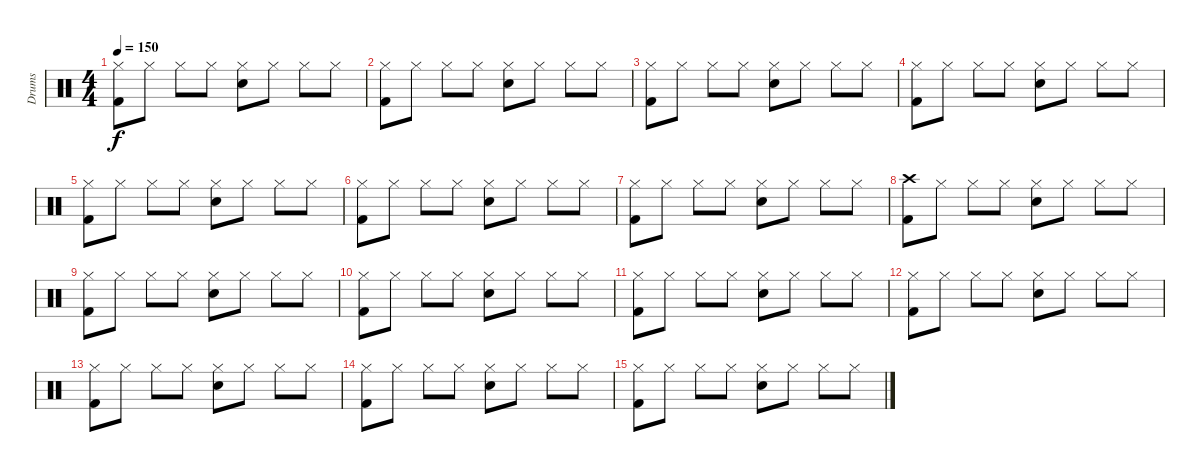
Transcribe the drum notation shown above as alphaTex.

\track ("Drums" "Drums") {instrument percussion}
\staff {score}
\articulation defaults
\ts (4 4)
\tempo 150
\clef neutral
\ks c
("Hi-Hat (closed)" "Kick (hit) 2").8{dy f} "Hi-Hat (closed)".8 "Hi-Hat (closed)".8 "Hi-Hat (closed)".8 ("Hi-Hat (closed)" "Electric Snare (hit)").8 "Hi-Hat (closed)".8 "Hi-Hat (closed)".8 "Hi-Hat (closed)".8 |
("Hi-Hat (closed)" "Kick (hit) 2").8 "Hi-Hat (closed)".8 "Hi-Hat (closed)".8 "Hi-Hat (closed)".8 ("Hi-Hat (closed)" "Electric Snare (hit)").8 "Hi-Hat (closed)".8 "Hi-Hat (closed)".8 "Hi-Hat (closed)".8 |
("Hi-Hat (closed)" "Kick (hit) 2").8 "Hi-Hat (closed)".8 "Hi-Hat (closed)".8 "Hi-Hat (closed)".8 ("Hi-Hat (closed)" "Electric Snare (hit)").8 "Hi-Hat (closed)".8 "Hi-Hat (closed)".8 "Hi-Hat (closed)".8 |
("Hi-Hat (closed)" "Kick (hit) 2").8{volume 5} "Hi-Hat (closed)".8 "Hi-Hat (closed)".8 "Hi-Hat (closed)".8 ("Hi-Hat (closed)" "Electric Snare (hit)").8 "Hi-Hat (closed)".8 "Hi-Hat (closed)".8 "Hi-Hat (closed)".8 |
("Hi-Hat (closed)" "Kick (hit) 2").8 "Hi-Hat (closed)".8 "Hi-Hat (closed)".8 "Hi-Hat (closed)".8 ("Hi-Hat (closed)" "Electric Snare (hit)").8 "Hi-Hat (closed)".8 "Hi-Hat (closed)".8 "Hi-Hat (closed)".8 |
("Hi-Hat (closed)" "Kick (hit) 2").8 "Hi-Hat (closed)".8 "Hi-Hat (closed)".8 "Hi-Hat (closed)".8 ("Hi-Hat (closed)" "Electric Snare (hit)").8 "Hi-Hat (closed)".8 "Hi-Hat (closed)".8 "Hi-Hat (closed)".8 |
("Hi-Hat (closed)" "Kick (hit) 2").8 "Hi-Hat (closed)".8 "Hi-Hat (closed)".8 "Hi-Hat (closed)".8 ("Hi-Hat (closed)" "Electric Snare (hit)").8 "Hi-Hat (closed)".8 "Hi-Hat (closed)".8 "Hi-Hat (closed)".8 |
("Crash high (hit)" "Kick (hit) 2").8{volume 3} "Hi-Hat (closed)".8 "Hi-Hat (closed)".8 "Hi-Hat (closed)".8 ("Hi-Hat (closed)" "Electric Snare (hit)").8 "Hi-Hat (closed)".8 "Hi-Hat (closed)".8 "Hi-Hat (closed)".8 |
("Hi-Hat (closed)" "Kick (hit) 2").8 "Hi-Hat (closed)".8 "Hi-Hat (closed)".8 "Hi-Hat (closed)".8 ("Hi-Hat (closed)" "Electric Snare (hit)").8 "Hi-Hat (closed)".8 "Hi-Hat (closed)".8 "Hi-Hat (closed)".8 |
("Hi-Hat (closed)" "Kick (hit) 2").8 "Hi-Hat (closed)".8 "Hi-Hat (closed)".8 "Hi-Hat (closed)".8 ("Hi-Hat (closed)" "Electric Snare (hit)").8 "Hi-Hat (closed)".8 "Hi-Hat (closed)".8 "Hi-Hat (closed)".8 |
("Hi-Hat (closed)" "Kick (hit) 2").8 "Hi-Hat (closed)".8 "Hi-Hat (closed)".8 "Hi-Hat (closed)".8 ("Hi-Hat (closed)" "Electric Snare (hit)").8 "Hi-Hat (closed)".8 "Hi-Hat (closed)".8 "Hi-Hat (closed)".8 |
("Hi-Hat (closed)" "Kick (hit) 2").8{volume 0} "Hi-Hat (closed)".8 "Hi-Hat (closed)".8 "Hi-Hat (closed)".8 ("Hi-Hat (closed)" "Electric Snare (hit)").8 "Hi-Hat (closed)".8 "Hi-Hat (closed)".8 "Hi-Hat (closed)".8 |
("Hi-Hat (closed)" "Kick (hit) 2").8 "Hi-Hat (closed)".8 "Hi-Hat (closed)".8 "Hi-Hat (closed)".8 ("Hi-Hat (closed)" "Electric Snare (hit)").8 "Hi-Hat (closed)".8 "Hi-Hat (closed)".8 "Hi-Hat (closed)".8 |
("Hi-Hat (closed)" "Kick (hit) 2").8 "Hi-Hat (closed)".8 "Hi-Hat (closed)".8 "Hi-Hat (closed)".8 ("Hi-Hat (closed)" "Electric Snare (hit)").8 "Hi-Hat (closed)".8 "Hi-Hat (closed)".8 "Hi-Hat (closed)".8 |
("Hi-Hat (closed)" "Kick (hit) 2").8 "Hi-Hat (closed)".8 "Hi-Hat (closed)".8 "Hi-Hat (closed)".8 ("Hi-Hat (closed)" "Electric Snare (hit)").8 "Hi-Hat (closed)".8 "Hi-Hat (closed)".8 "Hi-Hat (closed)".8
